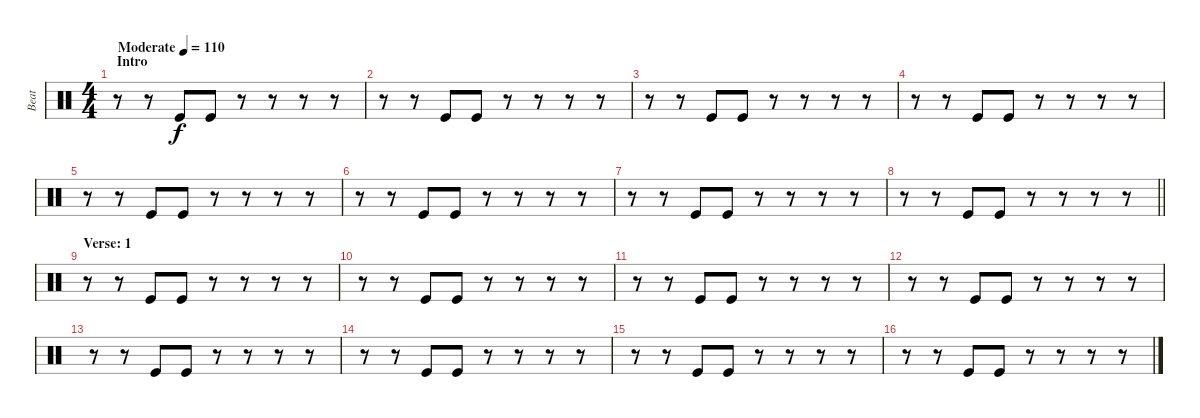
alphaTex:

\track ("Beat" "Beat") {instrument percussion}
\staff {score}
\articulation defaults
\ts (4 4)
\section ("" " Intro")
\tempo (110 "Moderate")
\clef neutral
\ks c
r.8{dy f} r.8 "Kick (hit)".8 "Kick (hit)".8 r.8 r.8 r.8 r.8 |
r.8 r.8 "Kick (hit)".8 "Kick (hit)".8 r.8 r.8 r.8 r.8 |
r.8 r.8 "Kick (hit)".8 "Kick (hit)".8 r.8 r.8 r.8 r.8 |
r.8 r.8 "Kick (hit)".8 "Kick (hit)".8 r.8 r.8 r.8 r.8 |
r.8 r.8 "Kick (hit)".8 "Kick (hit)".8 r.8 r.8 r.8 r.8 |
r.8 r.8 "Kick (hit)".8 "Kick (hit)".8 r.8 r.8 r.8 r.8 |
r.8 r.8 "Kick (hit)".8 "Kick (hit)".8 r.8 r.8 r.8 r.8 |
\barLineRight lightlight
r.8 r.8 "Kick (hit)".8 "Kick (hit)".8 r.8 r.8 r.8 r.8 |
\section ("" "Verse: 1")
r.8 r.8 "Kick (hit)".8 "Kick (hit)".8 r.8 r.8 r.8 r.8 |
r.8 r.8 "Kick (hit)".8 "Kick (hit)".8 r.8 r.8 r.8 r.8 |
r.8 r.8 "Kick (hit)".8 "Kick (hit)".8 r.8 r.8 r.8 r.8 |
r.8 r.8 "Kick (hit)".8 "Kick (hit)".8 r.8 r.8 r.8 r.8 |
r.8 r.8 "Kick (hit)".8 "Kick (hit)".8 r.8 r.8 r.8 r.8 |
r.8 r.8 "Kick (hit)".8 "Kick (hit)".8 r.8 r.8 r.8 r.8 |
r.8 r.8 "Kick (hit)".8 "Kick (hit)".8 r.8 r.8 r.8 r.8 |
r.8 r.8 "Kick (hit)".8 "Kick (hit)".8 r.8 r.8 r.8 r.8
